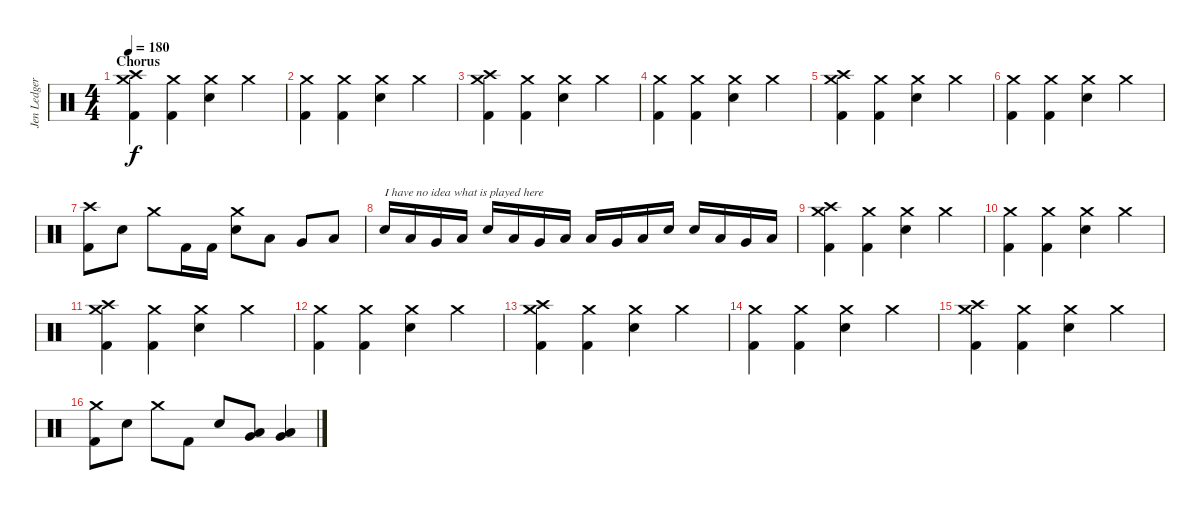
\track ("Jen Ledger" "Jen Ledger") {instrument percussion}
\staff {score}
\articulation defaults
\ts (4 4)
\section ("" "Chorus")
\tempo 180
\clef neutral
\ks c
("Crash high (hit)" "Crash medium (hit)" "Kick (hit) 2").4{dy f} ("Crash medium (hit)" "Kick (hit) 2").4 ("Crash medium (hit)" "Electric Snare (hit)").4 "Crash medium (hit)".4 |
("Crash medium (hit)" "Kick (hit) 2").4 ("Crash medium (hit)" "Kick (hit) 2").4 ("Crash medium (hit)" "Electric Snare (hit)").4 "Crash medium (hit)".4 |
("Crash high (hit)" "Crash medium (hit)" "Kick (hit) 2").4 ("Crash medium (hit)" "Kick (hit) 2").4 ("Crash medium (hit)" "Electric Snare (hit)").4 "Crash medium (hit)".4 |
("Crash medium (hit)" "Kick (hit) 2").4 ("Crash medium (hit)" "Kick (hit) 2").4 ("Crash medium (hit)" "Electric Snare (hit)").4 "Crash medium (hit)".4 |
("Crash high (hit)" "Crash medium (hit)" "Kick (hit) 2").4 ("Crash medium (hit)" "Kick (hit) 2").4 ("Crash medium (hit)" "Electric Snare (hit)").4 "Crash medium (hit)".4 |
("Crash medium (hit)" "Kick (hit) 2").4 ("Crash medium (hit)" "Kick (hit) 2").4 ("Crash medium (hit)" "Electric Snare (hit)").4 "Crash medium (hit)".4 |
("Crash high (hit)" "Kick (hit) 2").8 "Electric Snare (hit)".8 "Crash medium (hit)".8 "Kick (hit) 2".16 "Kick (hit) 2".16 ("Crash medium (hit)" "Electric Snare (hit)").8 "Low Tom (hit)".8 "Very Low Tom (hit)".8 "Low Floor Tom (hit)".8 |
"Electric Snare (hit)".16{txt "I have no idea what is played here"} "Low Tom (hit)".16 "Very Low Tom (hit)".16 "Low Floor Tom (hit)".16 "Electric Snare (hit)".16 "Low Tom (hit)".16 "Very Low Tom (hit)".16 "Low Floor Tom (hit)".16 "Low Tom (hit)".16 "Very Low Tom (hit)".16 "Low Floor Tom (hit)".16 "Electric Snare (hit)".16 "Electric Snare (hit)".16 "Low Tom (hit)".16 "Very Low Tom (hit)".16 "Low Floor Tom (hit)".16 |
("Crash high (hit)" "Crash medium (hit)" "Kick (hit) 2").4 ("Crash medium (hit)" "Kick (hit) 2").4 ("Crash medium (hit)" "Electric Snare (hit)").4 "Crash medium (hit)".4 |
("Crash medium (hit)" "Kick (hit) 2").4 ("Crash medium (hit)" "Kick (hit) 2").4 ("Crash medium (hit)" "Electric Snare (hit)").4 "Crash medium (hit)".4 |
("Crash high (hit)" "Crash medium (hit)" "Kick (hit) 2").4 ("Crash medium (hit)" "Kick (hit) 2").4 ("Crash medium (hit)" "Electric Snare (hit)").4 "Crash medium (hit)".4 |
("Crash medium (hit)" "Kick (hit) 2").4 ("Crash medium (hit)" "Kick (hit) 2").4 ("Crash medium (hit)" "Electric Snare (hit)").4 "Crash medium (hit)".4 |
("Crash high (hit)" "Crash medium (hit)" "Kick (hit) 2").4 ("Crash medium (hit)" "Kick (hit) 2").4 ("Crash medium (hit)" "Electric Snare (hit)").4 "Crash medium (hit)".4 |
("Crash medium (hit)" "Kick (hit) 2").4 ("Crash medium (hit)" "Kick (hit) 2").4 ("Crash medium (hit)" "Electric Snare (hit)").4 "Crash medium (hit)".4 |
("Crash high (hit)" "Crash medium (hit)" "Kick (hit) 2").4 ("Crash medium (hit)" "Kick (hit) 2").4 ("Crash medium (hit)" "Electric Snare (hit)").4 "Crash medium (hit)".4 |
("Crash medium (hit)" "Kick (hit) 2").8 "Electric Snare (hit)".8 "Crash medium (hit)".8 "Kick (hit) 2".8 "Electric Snare (hit)".8 ("Low Floor Tom (hit)" "Very Low Tom (hit)").8 ("Low Floor Tom (hit)" "Very Low Tom (hit)").4
